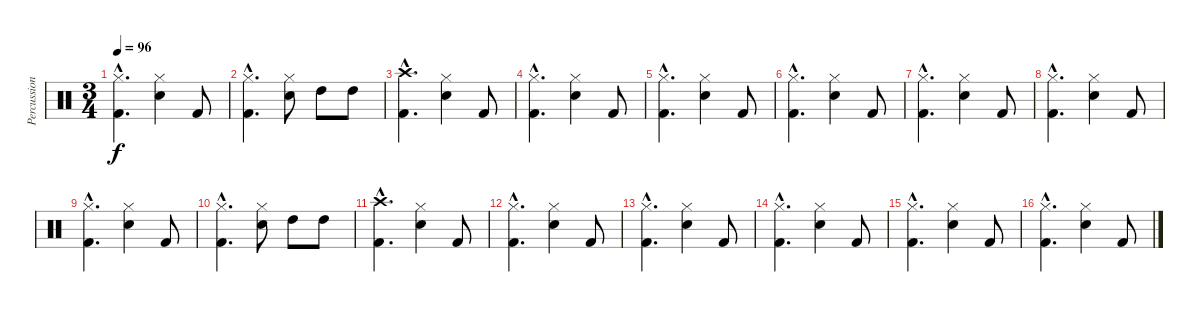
\track ("Percussions" "Percussion") {instrument percussion}
\staff {score}
\articulation defaults
\ts (3 4)
\tempo 96
\clef neutral
\ks c
("Hi-Hat (closed)"{hac} "Kick (hit) 2"{hac}).4{d dy f} ("Hi-Hat (closed)" "Snare (hit) 2").4 "Kick (hit) 2".8 |
("Hi-Hat (closed)"{hac} "Kick (hit) 2"{hac}).4{d} ("Hi-Hat (closed)" "Snare (hit) 2").8 "High Tom (hit)".8 "High Tom (hit)".8 |
("Crash high (hit)"{hac} "Kick (hit) 2"{hac}).4{d} ("Hi-Hat (closed)" "Snare (hit) 2").4 "Kick (hit) 2".8 |
("Hi-Hat (closed)"{hac} "Kick (hit) 2"{hac}).4{d} ("Hi-Hat (closed)" "Snare (hit) 2").4 "Kick (hit) 2".8 |
("Hi-Hat (closed)"{hac} "Kick (hit) 2"{hac}).4{d} ("Hi-Hat (closed)" "Snare (hit) 2").4 "Kick (hit) 2".8 |
("Hi-Hat (closed)"{hac} "Kick (hit) 2"{hac}).4{d} ("Hi-Hat (closed)" "Snare (hit) 2").4 "Kick (hit) 2".8 |
("Hi-Hat (closed)"{hac} "Kick (hit) 2"{hac}).4{d} ("Hi-Hat (closed)" "Snare (hit) 2").4 "Kick (hit) 2".8 |
("Hi-Hat (closed)"{hac} "Kick (hit) 2"{hac}).4{d} ("Hi-Hat (closed)" "Snare (hit) 2").4 "Kick (hit) 2".8 |
("Hi-Hat (closed)"{hac} "Kick (hit) 2"{hac}).4{d} ("Hi-Hat (closed)" "Snare (hit) 2").4 "Kick (hit) 2".8 |
("Hi-Hat (closed)"{hac} "Kick (hit) 2"{hac}).4{d} ("Hi-Hat (closed)" "Snare (hit) 2").8 "High Tom (hit)".8 "High Tom (hit)".8 |
("Crash high (hit)"{hac} "Kick (hit) 2"{hac}).4{d} ("Hi-Hat (closed)" "Snare (hit) 2").4 "Kick (hit) 2".8 |
("Hi-Hat (closed)"{hac} "Kick (hit) 2"{hac}).4{d} ("Hi-Hat (closed)" "Snare (hit) 2").4 "Kick (hit) 2".8 |
("Hi-Hat (closed)"{hac} "Kick (hit) 2"{hac}).4{d} ("Hi-Hat (closed)" "Snare (hit) 2").4 "Kick (hit) 2".8 |
("Hi-Hat (closed)"{hac} "Kick (hit) 2"{hac}).4{d} ("Hi-Hat (closed)" "Snare (hit) 2").4 "Kick (hit) 2".8 |
("Hi-Hat (closed)"{hac} "Kick (hit) 2"{hac}).4{d} ("Hi-Hat (closed)" "Snare (hit) 2").4 "Kick (hit) 2".8 |
("Hi-Hat (closed)"{hac} "Kick (hit) 2"{hac}).4{d} ("Hi-Hat (closed)" "Snare (hit) 2").4 "Kick (hit) 2".8
